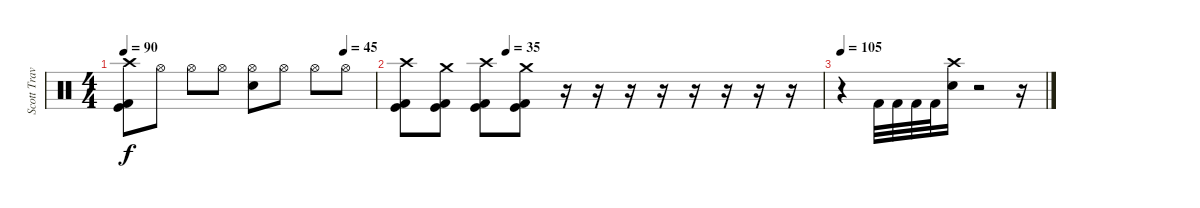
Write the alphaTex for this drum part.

\track ("Scott Travis" "Scott Trav") {instrument percussion}
\staff {score}
\articulation defaults
\ts (4 4)
\tempo 90
\tempo (45 0.875)
\clef neutral
\ks c
("Crash high (hit)" "Kick (hit)" "Kick (hit) 2").8{dy f} "Hi-Hat (open)".8 "Hi-Hat (open)".8 "Hi-Hat (open)".8 ("Hi-Hat (open)" "Snare (hit) 2").8 "Hi-Hat (open)".8 "Hi-Hat (open)".8 "Hi-Hat (open)".8 |
\tempo (35 0.25)
("Crash high (hit)" "Kick (hit)" "Kick (hit) 2").8 ("Crash medium (hit)" "Kick (hit)" "Kick (hit) 2").8 ("Crash high (hit)" "Kick (hit)" "Kick (hit) 2").8 ("Crash medium (hit)" "Kick (hit)" "Kick (hit) 2").8 r.16 r.16 r.16 r.16 r.16 r.16 r.16 r.16 |
\tempo 105
r.4 "Kick (hit) 2".32 "Kick (hit) 2".32 "Kick (hit) 2".32 "Kick (hit) 2".32 ("Crash high (hit)" "Snare (hit) 2").16 r.2 r.16
